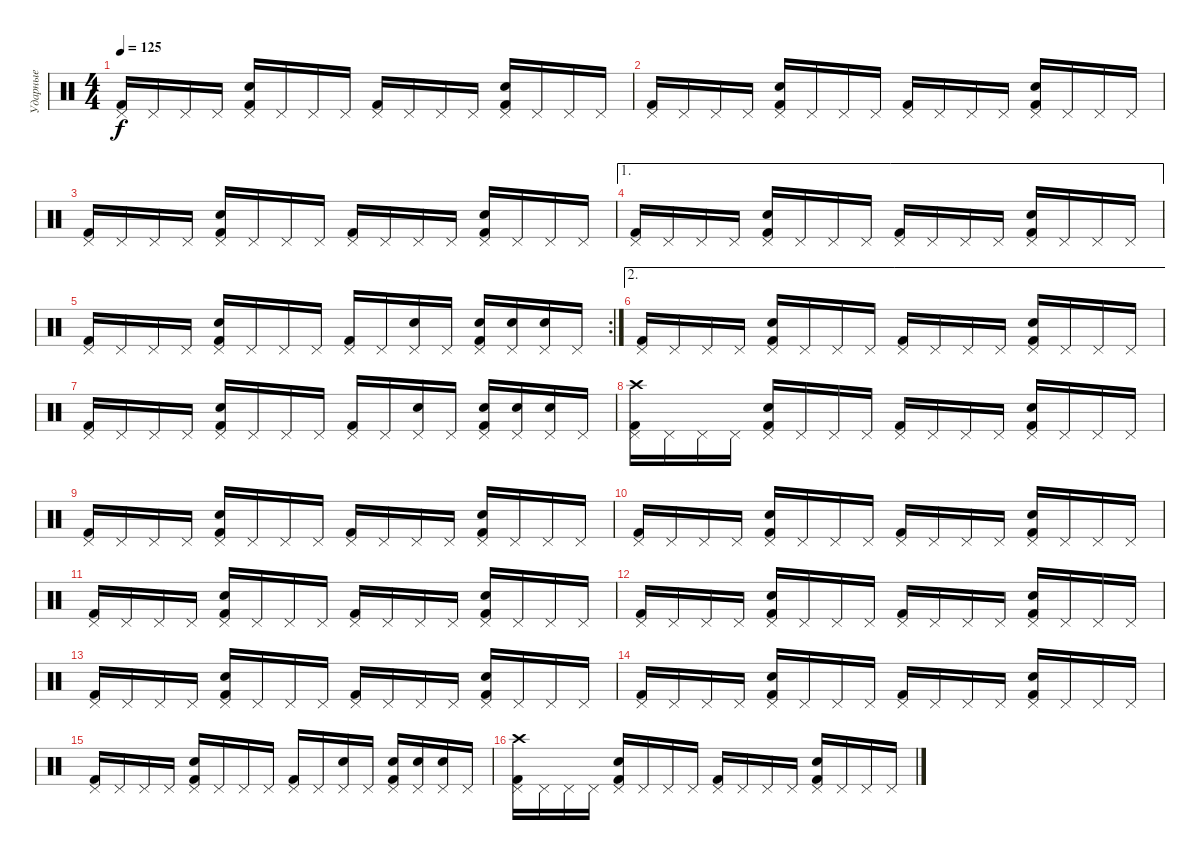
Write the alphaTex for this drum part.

\track ("Ударные" "Ударные") {instrument percussion}
\staff {score}
\articulation defaults
\ts (4 4)
\tempo 125
\clef neutral
\ks c
("Kick (hit) 2" "Pedal Hi-Hat (hit)").16{dy f} "Pedal Hi-Hat (hit)".16 "Pedal Hi-Hat (hit)".16 "Pedal Hi-Hat (hit)".16 ("Kick (hit) 2" "Pedal Hi-Hat (hit)" "Snare (hit) 2").16 "Pedal Hi-Hat (hit)".16 "Pedal Hi-Hat (hit)".16 "Pedal Hi-Hat (hit)".16 ("Kick (hit) 2" "Pedal Hi-Hat (hit)").16 "Pedal Hi-Hat (hit)".16 "Pedal Hi-Hat (hit)".16 "Pedal Hi-Hat (hit)".16 ("Kick (hit) 2" "Pedal Hi-Hat (hit)" "Snare (hit) 2").16 "Pedal Hi-Hat (hit)".16 "Pedal Hi-Hat (hit)".16 "Pedal Hi-Hat (hit)".16 |
("Kick (hit) 2" "Pedal Hi-Hat (hit)").16 "Pedal Hi-Hat (hit)".16 "Pedal Hi-Hat (hit)".16 "Pedal Hi-Hat (hit)".16 ("Kick (hit) 2" "Pedal Hi-Hat (hit)" "Snare (hit) 2").16 "Pedal Hi-Hat (hit)".16 "Pedal Hi-Hat (hit)".16 "Pedal Hi-Hat (hit)".16 ("Kick (hit) 2" "Pedal Hi-Hat (hit)").16 "Pedal Hi-Hat (hit)".16 "Pedal Hi-Hat (hit)".16 "Pedal Hi-Hat (hit)".16 ("Kick (hit) 2" "Pedal Hi-Hat (hit)" "Snare (hit) 2").16 "Pedal Hi-Hat (hit)".16 "Pedal Hi-Hat (hit)".16 "Pedal Hi-Hat (hit)".16 |
("Kick (hit) 2" "Pedal Hi-Hat (hit)").16 "Pedal Hi-Hat (hit)".16 "Pedal Hi-Hat (hit)".16 "Pedal Hi-Hat (hit)".16 ("Kick (hit) 2" "Pedal Hi-Hat (hit)" "Snare (hit) 2").16 "Pedal Hi-Hat (hit)".16 "Pedal Hi-Hat (hit)".16 "Pedal Hi-Hat (hit)".16 ("Kick (hit) 2" "Pedal Hi-Hat (hit)").16 "Pedal Hi-Hat (hit)".16 "Pedal Hi-Hat (hit)".16 "Pedal Hi-Hat (hit)".16 ("Kick (hit) 2" "Pedal Hi-Hat (hit)" "Snare (hit) 2").16 "Pedal Hi-Hat (hit)".16 "Pedal Hi-Hat (hit)".16 "Pedal Hi-Hat (hit)".16 |
\ae 1
("Kick (hit) 2" "Pedal Hi-Hat (hit)").16 "Pedal Hi-Hat (hit)".16 "Pedal Hi-Hat (hit)".16 "Pedal Hi-Hat (hit)".16 ("Kick (hit) 2" "Pedal Hi-Hat (hit)" "Snare (hit) 2").16 "Pedal Hi-Hat (hit)".16 "Pedal Hi-Hat (hit)".16 "Pedal Hi-Hat (hit)".16 ("Kick (hit) 2" "Pedal Hi-Hat (hit)").16 "Pedal Hi-Hat (hit)".16 "Pedal Hi-Hat (hit)".16 "Pedal Hi-Hat (hit)".16 ("Kick (hit) 2" "Pedal Hi-Hat (hit)" "Snare (hit) 2").16 "Pedal Hi-Hat (hit)".16 "Pedal Hi-Hat (hit)".16 "Pedal Hi-Hat (hit)".16 |
\rc 2
("Kick (hit) 2" "Pedal Hi-Hat (hit)").16 "Pedal Hi-Hat (hit)".16 "Pedal Hi-Hat (hit)".16 "Pedal Hi-Hat (hit)".16 ("Kick (hit) 2" "Pedal Hi-Hat (hit)" "Snare (hit) 2").16 "Pedal Hi-Hat (hit)".16 "Pedal Hi-Hat (hit)".16 "Pedal Hi-Hat (hit)".16 ("Kick (hit) 2" "Pedal Hi-Hat (hit)").16 "Pedal Hi-Hat (hit)".16 ("Pedal Hi-Hat (hit)" "Snare (hit) 2").16 "Pedal Hi-Hat (hit)".16 ("Kick (hit) 2" "Pedal Hi-Hat (hit)" "Snare (hit) 2").16 ("Pedal Hi-Hat (hit)" "Snare (hit) 2").16 ("Pedal Hi-Hat (hit)" "Snare (hit) 2").16 "Pedal Hi-Hat (hit)".16 |
\ae 2
("Kick (hit) 2" "Pedal Hi-Hat (hit)").16 "Pedal Hi-Hat (hit)".16 "Pedal Hi-Hat (hit)".16 "Pedal Hi-Hat (hit)".16 ("Kick (hit) 2" "Pedal Hi-Hat (hit)" "Snare (hit) 2").16 "Pedal Hi-Hat (hit)".16 "Pedal Hi-Hat (hit)".16 "Pedal Hi-Hat (hit)".16 ("Kick (hit) 2" "Pedal Hi-Hat (hit)").16 "Pedal Hi-Hat (hit)".16 "Pedal Hi-Hat (hit)".16 "Pedal Hi-Hat (hit)".16 ("Kick (hit) 2" "Pedal Hi-Hat (hit)" "Snare (hit) 2").16 "Pedal Hi-Hat (hit)".16 "Pedal Hi-Hat (hit)".16 "Pedal Hi-Hat (hit)".16 |
("Kick (hit) 2" "Pedal Hi-Hat (hit)").16 "Pedal Hi-Hat (hit)".16 "Pedal Hi-Hat (hit)".16 "Pedal Hi-Hat (hit)".16 ("Kick (hit) 2" "Pedal Hi-Hat (hit)" "Snare (hit) 2").16 "Pedal Hi-Hat (hit)".16 "Pedal Hi-Hat (hit)".16 "Pedal Hi-Hat (hit)".16 ("Kick (hit) 2" "Pedal Hi-Hat (hit)").16 "Pedal Hi-Hat (hit)".16 ("Pedal Hi-Hat (hit)" "Snare (hit) 2").16 "Pedal Hi-Hat (hit)".16 ("Kick (hit) 2" "Pedal Hi-Hat (hit)" "Snare (hit) 2").16 ("Pedal Hi-Hat (hit)" "Snare (hit) 2").16 ("Pedal Hi-Hat (hit)" "Snare (hit) 2").16 "Pedal Hi-Hat (hit)".16 |
("Kick (hit) 2" "Pedal Hi-Hat (hit)" "Crash high (hit)").16 "Pedal Hi-Hat (hit)".16 "Pedal Hi-Hat (hit)".16 "Pedal Hi-Hat (hit)".16 ("Kick (hit) 2" "Pedal Hi-Hat (hit)" "Snare (hit) 2").16 "Pedal Hi-Hat (hit)".16 "Pedal Hi-Hat (hit)".16 "Pedal Hi-Hat (hit)".16 ("Kick (hit) 2" "Pedal Hi-Hat (hit)").16 "Pedal Hi-Hat (hit)".16 "Pedal Hi-Hat (hit)".16 "Pedal Hi-Hat (hit)".16 ("Kick (hit) 2" "Pedal Hi-Hat (hit)" "Snare (hit) 2").16 "Pedal Hi-Hat (hit)".16 "Pedal Hi-Hat (hit)".16 "Pedal Hi-Hat (hit)".16 |
("Kick (hit) 2" "Pedal Hi-Hat (hit)").16 "Pedal Hi-Hat (hit)".16 "Pedal Hi-Hat (hit)".16 "Pedal Hi-Hat (hit)".16 ("Kick (hit) 2" "Pedal Hi-Hat (hit)" "Snare (hit) 2").16 "Pedal Hi-Hat (hit)".16 "Pedal Hi-Hat (hit)".16 "Pedal Hi-Hat (hit)".16 ("Kick (hit) 2" "Pedal Hi-Hat (hit)").16 "Pedal Hi-Hat (hit)".16 "Pedal Hi-Hat (hit)".16 "Pedal Hi-Hat (hit)".16 ("Kick (hit) 2" "Pedal Hi-Hat (hit)" "Snare (hit) 2").16 "Pedal Hi-Hat (hit)".16 "Pedal Hi-Hat (hit)".16 "Pedal Hi-Hat (hit)".16 |
("Kick (hit) 2" "Pedal Hi-Hat (hit)").16 "Pedal Hi-Hat (hit)".16 "Pedal Hi-Hat (hit)".16 "Pedal Hi-Hat (hit)".16 ("Kick (hit) 2" "Pedal Hi-Hat (hit)" "Snare (hit) 2").16 "Pedal Hi-Hat (hit)".16 "Pedal Hi-Hat (hit)".16 "Pedal Hi-Hat (hit)".16 ("Kick (hit) 2" "Pedal Hi-Hat (hit)").16 "Pedal Hi-Hat (hit)".16 "Pedal Hi-Hat (hit)".16 "Pedal Hi-Hat (hit)".16 ("Kick (hit) 2" "Pedal Hi-Hat (hit)" "Snare (hit) 2").16 "Pedal Hi-Hat (hit)".16 "Pedal Hi-Hat (hit)".16 "Pedal Hi-Hat (hit)".16 |
("Kick (hit) 2" "Pedal Hi-Hat (hit)").16 "Pedal Hi-Hat (hit)".16 "Pedal Hi-Hat (hit)".16 "Pedal Hi-Hat (hit)".16 ("Kick (hit) 2" "Pedal Hi-Hat (hit)" "Snare (hit) 2").16 "Pedal Hi-Hat (hit)".16 "Pedal Hi-Hat (hit)".16 "Pedal Hi-Hat (hit)".16 ("Kick (hit) 2" "Pedal Hi-Hat (hit)").16 "Pedal Hi-Hat (hit)".16 "Pedal Hi-Hat (hit)".16 "Pedal Hi-Hat (hit)".16 ("Kick (hit) 2" "Pedal Hi-Hat (hit)" "Snare (hit) 2").16 "Pedal Hi-Hat (hit)".16 "Pedal Hi-Hat (hit)".16 "Pedal Hi-Hat (hit)".16 |
("Kick (hit) 2" "Pedal Hi-Hat (hit)").16 "Pedal Hi-Hat (hit)".16 "Pedal Hi-Hat (hit)".16 "Pedal Hi-Hat (hit)".16 ("Kick (hit) 2" "Pedal Hi-Hat (hit)" "Snare (hit) 2").16 "Pedal Hi-Hat (hit)".16 "Pedal Hi-Hat (hit)".16 "Pedal Hi-Hat (hit)".16 ("Kick (hit) 2" "Pedal Hi-Hat (hit)").16 "Pedal Hi-Hat (hit)".16 "Pedal Hi-Hat (hit)".16 "Pedal Hi-Hat (hit)".16 ("Kick (hit) 2" "Pedal Hi-Hat (hit)" "Snare (hit) 2").16 "Pedal Hi-Hat (hit)".16 "Pedal Hi-Hat (hit)".16 "Pedal Hi-Hat (hit)".16 |
("Kick (hit) 2" "Pedal Hi-Hat (hit)").16 "Pedal Hi-Hat (hit)".16 "Pedal Hi-Hat (hit)".16 "Pedal Hi-Hat (hit)".16 ("Kick (hit) 2" "Pedal Hi-Hat (hit)" "Snare (hit) 2").16 "Pedal Hi-Hat (hit)".16 "Pedal Hi-Hat (hit)".16 "Pedal Hi-Hat (hit)".16 ("Kick (hit) 2" "Pedal Hi-Hat (hit)").16 "Pedal Hi-Hat (hit)".16 "Pedal Hi-Hat (hit)".16 "Pedal Hi-Hat (hit)".16 ("Kick (hit) 2" "Pedal Hi-Hat (hit)" "Snare (hit) 2").16 "Pedal Hi-Hat (hit)".16 "Pedal Hi-Hat (hit)".16 "Pedal Hi-Hat (hit)".16 |
("Kick (hit) 2" "Pedal Hi-Hat (hit)").16 "Pedal Hi-Hat (hit)".16 "Pedal Hi-Hat (hit)".16 "Pedal Hi-Hat (hit)".16 ("Kick (hit) 2" "Pedal Hi-Hat (hit)" "Snare (hit) 2").16 "Pedal Hi-Hat (hit)".16 "Pedal Hi-Hat (hit)".16 "Pedal Hi-Hat (hit)".16 ("Kick (hit) 2" "Pedal Hi-Hat (hit)").16 "Pedal Hi-Hat (hit)".16 "Pedal Hi-Hat (hit)".16 "Pedal Hi-Hat (hit)".16 ("Kick (hit) 2" "Pedal Hi-Hat (hit)" "Snare (hit) 2").16 "Pedal Hi-Hat (hit)".16 "Pedal Hi-Hat (hit)".16 "Pedal Hi-Hat (hit)".16 |
("Kick (hit) 2" "Pedal Hi-Hat (hit)").16 "Pedal Hi-Hat (hit)".16 "Pedal Hi-Hat (hit)".16 "Pedal Hi-Hat (hit)".16 ("Kick (hit) 2" "Pedal Hi-Hat (hit)" "Snare (hit) 2").16 "Pedal Hi-Hat (hit)".16 "Pedal Hi-Hat (hit)".16 "Pedal Hi-Hat (hit)".16 ("Kick (hit) 2" "Pedal Hi-Hat (hit)").16 "Pedal Hi-Hat (hit)".16 ("Pedal Hi-Hat (hit)" "Snare (hit) 2").16 "Pedal Hi-Hat (hit)".16 ("Kick (hit) 2" "Pedal Hi-Hat (hit)" "Snare (hit) 2").16 ("Pedal Hi-Hat (hit)" "Snare (hit) 2").16 ("Pedal Hi-Hat (hit)" "Snare (hit) 2").16 "Pedal Hi-Hat (hit)".16 |
("Kick (hit) 2" "Pedal Hi-Hat (hit)" "Crash high (hit)").16 "Pedal Hi-Hat (hit)".16 "Pedal Hi-Hat (hit)".16 "Pedal Hi-Hat (hit)".16 ("Kick (hit) 2" "Pedal Hi-Hat (hit)" "Snare (hit) 2").16 "Pedal Hi-Hat (hit)".16 "Pedal Hi-Hat (hit)".16 "Pedal Hi-Hat (hit)".16 ("Kick (hit) 2" "Pedal Hi-Hat (hit)").16 "Pedal Hi-Hat (hit)".16 "Pedal Hi-Hat (hit)".16 "Pedal Hi-Hat (hit)".16 ("Kick (hit) 2" "Pedal Hi-Hat (hit)" "Snare (hit) 2").16 "Pedal Hi-Hat (hit)".16 "Pedal Hi-Hat (hit)".16 "Pedal Hi-Hat (hit)".16
